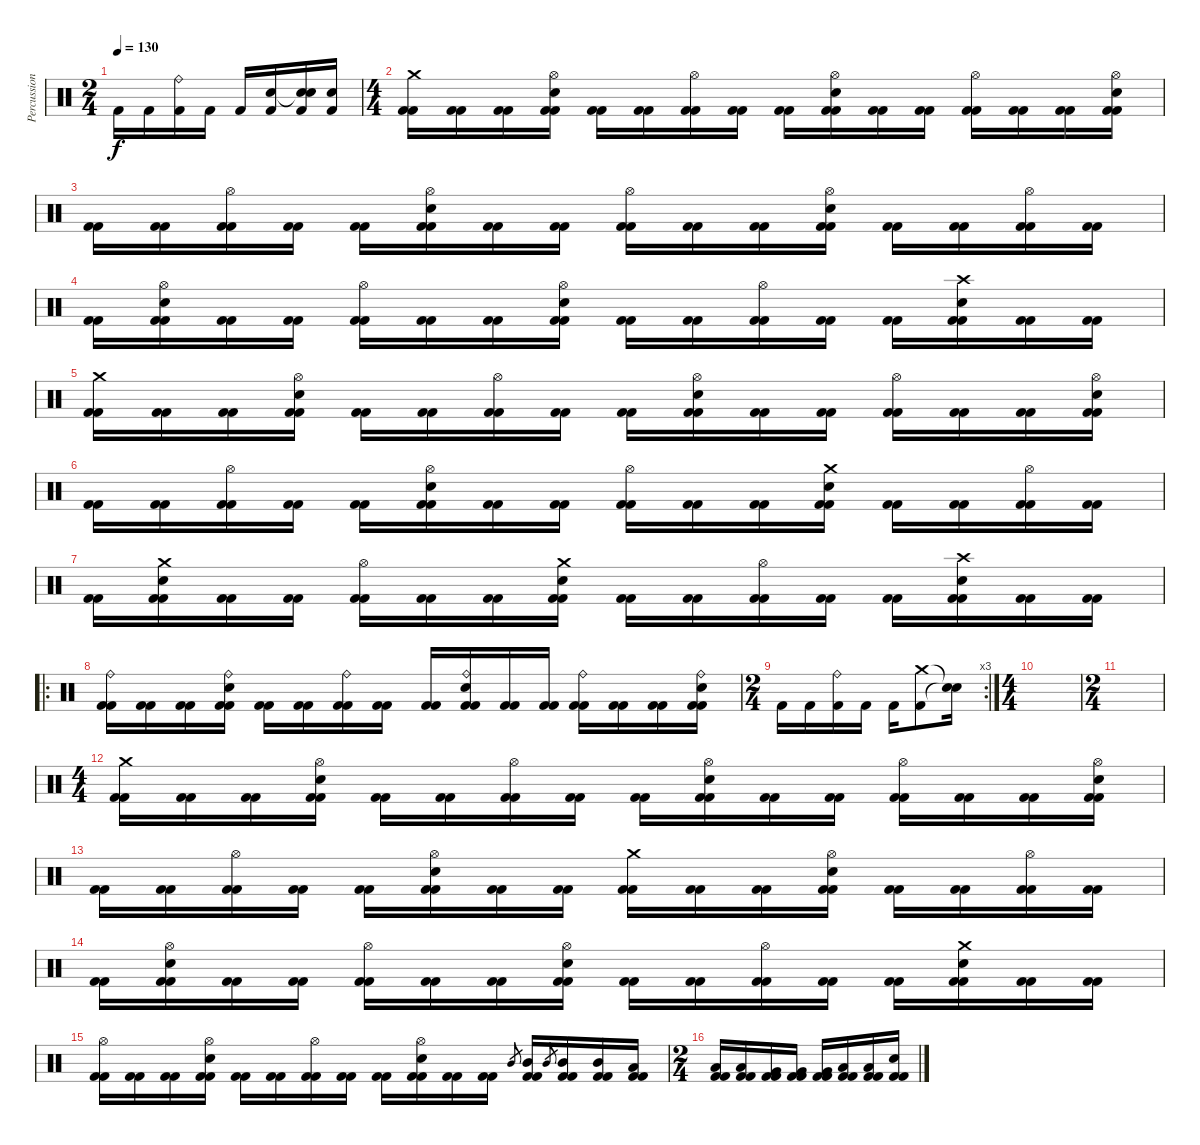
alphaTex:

\track ("Percussion" "Percussion") {instrument percussion}
\staff {score}
\articulation defaults
\ts (2 4)
\tempo 130
\clef neutral
\ks c "Kick (hit) 2".16{dy f} "Kick (hit) 2".16
("Ride (bell)" "Kick (hit) 2").16 "Kick (hit) 2".16 "Kick (hit) 2".16 ("Electric Snare (hit)" "Kick (hit) 2").16 ("Snare (hit)"{t} "Electric Snare (hit)" "Kick (hit) 2").16 ("Electric Snare (hit)" "Kick (hit) 2").16 |
\ts (4 4)
("Crash medium (hit)" "Kick (hit) 2" "Kick (hit) 2").16 ("Kick (hit) 2" "Kick (hit) 2").16 ("Kick (hit) 2" "Kick (hit) 2").16 ("Hi-Hat (open)" "Electric Snare (hit)" "Kick (hit) 2" "Kick (hit) 2").16 ("Kick (hit) 2" "Kick (hit) 2").16 ("Kick (hit) 2" "Kick (hit) 2").16 ("Hi-Hat (open)" "Kick (hit) 2" "Kick (hit) 2").16 ("Kick (hit) 2" "Kick (hit) 2").16 ("Kick (hit) 2" "Kick (hit) 2").16 ("Hi-Hat (open)" "Electric Snare (hit)" "Kick (hit) 2" "Kick (hit) 2").16 ("Kick (hit) 2" "Kick (hit) 2").16 ("Kick (hit) 2" "Kick (hit) 2").16 ("Hi-Hat (open)" "Kick (hit) 2" "Kick (hit) 2").16 ("Kick (hit) 2" "Kick (hit) 2").16 ("Kick (hit) 2" "Kick (hit) 2").16 ("Hi-Hat (open)" "Electric Snare (hit)" "Kick (hit) 2" "Kick (hit) 2").16 |
("Kick (hit) 2" "Kick (hit) 2").16 ("Kick (hit) 2" "Kick (hit) 2").16 ("Hi-Hat (open)" "Kick (hit) 2" "Kick (hit) 2").16 ("Kick (hit) 2" "Kick (hit) 2").16 ("Kick (hit) 2" "Kick (hit) 2").16 ("Hi-Hat (open)" "Electric Snare (hit)" "Kick (hit) 2" "Kick (hit) 2").16 ("Kick (hit) 2" "Kick (hit) 2").16 ("Kick (hit) 2" "Kick (hit) 2").16 ("Hi-Hat (open)" "Kick (hit) 2" "Kick (hit) 2").16 ("Kick (hit) 2" "Kick (hit) 2").16 ("Kick (hit) 2" "Kick (hit) 2").16 ("Hi-Hat (open)" "Electric Snare (hit)" "Kick (hit) 2" "Kick (hit) 2").16 ("Kick (hit) 2" "Kick (hit) 2").16 ("Kick (hit) 2" "Kick (hit) 2").16 ("Hi-Hat (open)" "Kick (hit) 2" "Kick (hit) 2").16 ("Kick (hit) 2" "Kick (hit) 2").16 |
("Kick (hit) 2" "Kick (hit) 2").16 ("Hi-Hat (open)" "Electric Snare (hit)" "Kick (hit) 2" "Kick (hit) 2").16 ("Kick (hit) 2" "Kick (hit) 2").16 ("Kick (hit) 2" "Kick (hit) 2").16 ("Hi-Hat (open)" "Kick (hit) 2" "Kick (hit) 2").16 ("Kick (hit) 2" "Kick (hit) 2").16 ("Kick (hit) 2" "Kick (hit) 2").16 ("Hi-Hat (open)" "Electric Snare (hit)" "Kick (hit) 2" "Kick (hit) 2").16 ("Kick (hit) 2" "Kick (hit) 2").16 ("Kick (hit) 2" "Kick (hit) 2").16 ("Hi-Hat (open)" "Kick (hit) 2" "Kick (hit) 2").16 ("Kick (hit) 2" "Kick (hit) 2").16 ("Kick (hit) 2" "Kick (hit) 2").16 ("Crash high (hit)" "Electric Snare (hit)" "Kick (hit) 2" "Kick (hit) 2").16 ("Kick (hit) 2" "Kick (hit) 2").16 ("Kick (hit) 2" "Kick (hit) 2").16 |
("Crash medium (hit)" "Kick (hit) 2" "Kick (hit) 2").16 ("Kick (hit) 2" "Kick (hit) 2").16 ("Kick (hit) 2" "Kick (hit) 2").16 ("Hi-Hat (open)" "Electric Snare (hit)" "Kick (hit) 2" "Kick (hit) 2").16 ("Kick (hit) 2" "Kick (hit) 2").16 ("Kick (hit) 2" "Kick (hit) 2").16 ("Hi-Hat (open)" "Kick (hit) 2" "Kick (hit) 2").16 ("Kick (hit) 2" "Kick (hit) 2").16 ("Kick (hit) 2" "Kick (hit) 2").16 ("Hi-Hat (open)" "Electric Snare (hit)" "Kick (hit) 2" "Kick (hit) 2").16 ("Kick (hit) 2" "Kick (hit) 2").16 ("Kick (hit) 2" "Kick (hit) 2").16 ("Hi-Hat (open)" "Kick (hit) 2" "Kick (hit) 2").16 ("Kick (hit) 2" "Kick (hit) 2").16 ("Kick (hit) 2" "Kick (hit) 2").16 ("Hi-Hat (open)" "Electric Snare (hit)" "Kick (hit) 2" "Kick (hit) 2").16 |
("Kick (hit) 2" "Kick (hit) 2").16 ("Kick (hit) 2" "Kick (hit) 2").16 ("Hi-Hat (open)" "Kick (hit) 2" "Kick (hit) 2").16 ("Kick (hit) 2" "Kick (hit) 2").16 ("Kick (hit) 2" "Kick (hit) 2").16 ("Hi-Hat (open)" "Electric Snare (hit)" "Kick (hit) 2" "Kick (hit) 2").16 ("Kick (hit) 2" "Kick (hit) 2").16 ("Kick (hit) 2" "Kick (hit) 2").16 ("Hi-Hat (open)" "Kick (hit) 2" "Kick (hit) 2").16 ("Kick (hit) 2" "Kick (hit) 2").16 ("Kick (hit) 2" "Kick (hit) 2").16 ("Crash medium (hit)" "Electric Snare (hit)" "Kick (hit) 2" "Kick (hit) 2").16 ("Kick (hit) 2" "Kick (hit) 2").16 ("Kick (hit) 2" "Kick (hit) 2").16 ("Hi-Hat (open)" "Kick (hit) 2" "Kick (hit) 2").16 ("Kick (hit) 2" "Kick (hit) 2").16 |
("Kick (hit) 2" "Kick (hit) 2").16 ("Crash medium (hit)" "Electric Snare (hit)" "Kick (hit) 2" "Kick (hit) 2").16 ("Kick (hit) 2" "Kick (hit) 2").16 ("Kick (hit) 2" "Kick (hit) 2").16 ("Hi-Hat (open)" "Kick (hit) 2" "Kick (hit) 2").16 ("Kick (hit) 2" "Kick (hit) 2").16 ("Kick (hit) 2" "Kick (hit) 2").16 ("Crash medium (hit)" "Electric Snare (hit)" "Kick (hit) 2" "Kick (hit) 2").16 ("Kick (hit) 2" "Kick (hit) 2").16 ("Kick (hit) 2" "Kick (hit) 2").16 ("Hi-Hat (open)" "Kick (hit) 2" "Kick (hit) 2").16 ("Kick (hit) 2" "Kick (hit) 2").16 ("Kick (hit) 2" "Kick (hit) 2").16 ("Crash high (hit)" "Electric Snare (hit)" "Kick (hit) 2" "Kick (hit) 2").16 ("Kick (hit) 2" "Kick (hit) 2").16 ("Kick (hit) 2" "Kick (hit) 2").16 |
\ro
("Ride (bell)" "Kick (hit) 2" "Kick (hit) 2").16 ("Kick (hit) 2" "Kick (hit) 2").16 ("Kick (hit) 2" "Kick (hit) 2").16 ("Ride (bell)" "Electric Snare (hit)" "Kick (hit) 2" "Kick (hit) 2").16 ("Kick (hit) 2" "Kick (hit) 2").16 ("Kick (hit) 2" "Kick (hit) 2").16 ("Ride (bell)" "Kick (hit) 2" "Kick (hit) 2").16 ("Kick (hit) 2" "Kick (hit) 2").16 ("Kick (hit) 2" "Kick (hit) 2").16 ("Ride (bell)" "Electric Snare (hit)" "Kick (hit) 2" "Kick (hit) 2").16 ("Kick (hit) 2" "Kick (hit) 2").16 ("Kick (hit) 2" "Kick (hit) 2").16 ("Ride (bell)" "Kick (hit) 2" "Kick (hit) 2").16 ("Kick (hit) 2" "Kick (hit) 2").16 ("Kick (hit) 2" "Kick (hit) 2").16 ("Ride (bell)" "Electric Snare (hit)" "Kick (hit) 2" "Kick (hit) 2").16 |
\rc 3
\ts (2 4)
"Kick (hit) 2".16 "Kick (hit) 2".16 ("Ride (bell)" "Kick (hit) 2").16 "Kick (hit) 2".16 "Kick (hit) 2".16 ("Crash medium (hit)" "Kick (hit) 2").8 ("Snare (hit)"{t} "Snare (hit)"{t}).16 |
\ts (4 4)
|
\ts (2 4)
|
\ts (4 4)
("Crash medium (hit)" "Kick (hit) 2" "Kick (hit) 2").16 ("Kick (hit) 2" "Kick (hit) 2").16 ("Kick (hit) 2" "Kick (hit) 2").16 ("Hi-Hat (open)" "Electric Snare (hit)" "Kick (hit) 2" "Kick (hit) 2").16 ("Kick (hit) 2" "Kick (hit) 2").16 ("Kick (hit) 2" "Kick (hit) 2").16 ("Hi-Hat (open)" "Kick (hit) 2" "Kick (hit) 2").16 ("Kick (hit) 2" "Kick (hit) 2").16 ("Kick (hit) 2" "Kick (hit) 2").16 ("Hi-Hat (open)" "Electric Snare (hit)" "Kick (hit) 2" "Kick (hit) 2").16 ("Kick (hit) 2" "Kick (hit) 2").16 ("Kick (hit) 2" "Kick (hit) 2").16 ("Hi-Hat (open)" "Kick (hit) 2" "Kick (hit) 2").16 ("Kick (hit) 2" "Kick (hit) 2").16 ("Kick (hit) 2" "Kick (hit) 2").16 ("Hi-Hat (open)" "Electric Snare (hit)" "Kick (hit) 2" "Kick (hit) 2").16 |
("Kick (hit) 2" "Kick (hit) 2").16 ("Kick (hit) 2" "Kick (hit) 2").16 ("Hi-Hat (open)" "Kick (hit) 2" "Kick (hit) 2").16 ("Kick (hit) 2" "Kick (hit) 2").16 ("Kick (hit) 2" "Kick (hit) 2").16 ("Hi-Hat (open)" "Electric Snare (hit)" "Kick (hit) 2" "Kick (hit) 2").16 ("Kick (hit) 2" "Kick (hit) 2").16 ("Kick (hit) 2" "Kick (hit) 2").16 ("Crash medium (hit)" "Kick (hit) 2" "Kick (hit) 2").16 ("Kick (hit) 2" "Kick (hit) 2").16 ("Kick (hit) 2" "Kick (hit) 2").16 ("Hi-Hat (open)" "Electric Snare (hit)" "Kick (hit) 2" "Kick (hit) 2").16 ("Kick (hit) 2" "Kick (hit) 2").16 ("Kick (hit) 2" "Kick (hit) 2").16 ("Hi-Hat (open)" "Kick (hit) 2" "Kick (hit) 2").16 ("Kick (hit) 2" "Kick (hit) 2").16 |
("Kick (hit) 2" "Kick (hit) 2").16 ("Hi-Hat (open)" "Electric Snare (hit)" "Kick (hit) 2" "Kick (hit) 2").16 ("Kick (hit) 2" "Kick (hit) 2").16 ("Kick (hit) 2" "Kick (hit) 2").16 ("Hi-Hat (open)" "Kick (hit) 2" "Kick (hit) 2").16 ("Kick (hit) 2" "Kick (hit) 2").16 ("Kick (hit) 2" "Kick (hit) 2").16 ("Hi-Hat (open)" "Electric Snare (hit)" "Kick (hit) 2" "Kick (hit) 2").16 ("Kick (hit) 2" "Kick (hit) 2").16 ("Kick (hit) 2" "Kick (hit) 2").16 ("Hi-Hat (open)" "Kick (hit) 2" "Kick (hit) 2").16 ("Kick (hit) 2" "Kick (hit) 2").16 ("Kick (hit) 2" "Kick (hit) 2").16 ("Crash medium (hit)" "Electric Snare (hit)" "Kick (hit) 2" "Kick (hit) 2").16 ("Kick (hit) 2" "Kick (hit) 2").16 ("Kick (hit) 2" "Kick (hit) 2").16 |
("Hi-Hat (open)" "Kick (hit) 2" "Kick (hit) 2").16 ("Kick (hit) 2" "Kick (hit) 2").16 ("Kick (hit) 2" "Kick (hit) 2").16 ("Hi-Hat (open)" "Electric Snare (hit)" "Kick (hit) 2" "Kick (hit) 2").16 ("Kick (hit) 2" "Kick (hit) 2").16 ("Kick (hit) 2" "Kick (hit) 2").16 ("Hi-Hat (open)" "Kick (hit) 2" "Kick (hit) 2").16 ("Kick (hit) 2" "Kick (hit) 2").16 ("Kick (hit) 2" "Kick (hit) 2").16 ("Hi-Hat (open)" "Electric Snare (hit)" "Kick (hit) 2" "Kick (hit) 2").16 ("Kick (hit) 2" "Kick (hit) 2").16 ("Kick (hit) 2" "Kick (hit) 2").16 "Mid Tom (hit)".8{gr} ("Mid Tom (hit)" "Kick (hit) 2" "Kick (hit) 2").16 "Mid Tom (hit)".8{gr} ("Mid Tom (hit)" "Kick (hit) 2" "Kick (hit) 2").16 ("Mid Tom (hit)" "Kick (hit) 2" "Kick (hit) 2").16 ("Low Tom (hit)" "Kick (hit) 2" "Kick (hit) 2").16 |
\ts (2 4)
("Low Tom (hit)" "Kick (hit) 2" "Kick (hit) 2").16 ("Low Tom (hit)" "Kick (hit) 2" "Kick (hit) 2").16 ("Very Low Tom (hit)" "Kick (hit) 2" "Kick (hit) 2").16 ("Very Low Tom (hit)" "Kick (hit) 2" "Kick (hit) 2").16 ("Very Low Tom (hit)" "Kick (hit) 2" "Kick (hit) 2").16 ("Low Floor Tom (hit)" "Kick (hit) 2" "Kick (hit) 2").16 ("Low Floor Tom (hit)" "Kick (hit) 2" "Kick (hit) 2").16 ("Electric Snare (hit)" "Kick (hit) 2" "Kick (hit) 2").16
